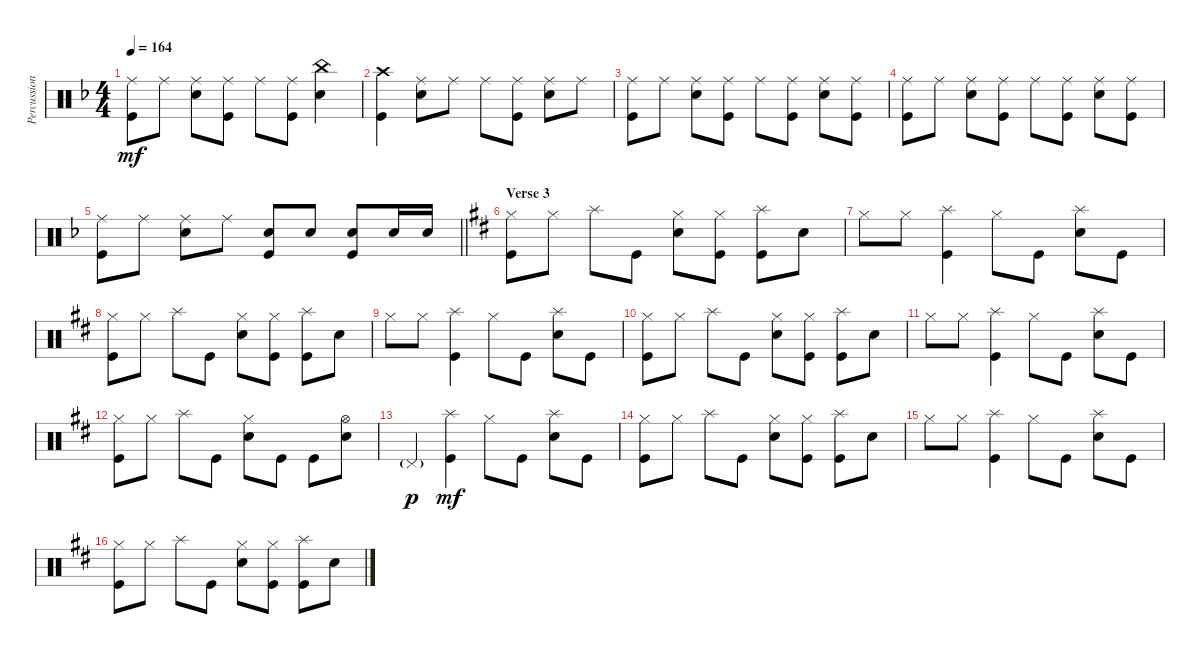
\track ("Percussions" "Percussion") {instrument percussion}
\staff {score}
\articulation defaults
\ts (4 4)
\tempo 164
\clef neutral
\ks dminor
("Ride (middle)" "Kick (hit)").8{dy mf} "Ride (middle)".8 ("Ride (middle)" "Electric Snare (hit)").8 ("Ride (middle)" "Kick (hit)").8 "Ride (middle)".8 ("Ride (middle)" "Kick (hit)").8 ("China (hit)" "Electric Snare (hit)").4 |
("Crash high (hit)" "Kick (hit)").4 ("Ride (middle)" "Electric Snare (hit)").8 "Ride (middle)".8 "Ride (middle)".8 ("Ride (middle)" "Kick (hit)").8 ("Ride (middle)" "Electric Snare (hit)").8 "Ride (middle)".8 |
("Ride (middle)" "Kick (hit)").8 "Ride (middle)".8 ("Ride (middle)" "Electric Snare (hit)").8 ("Ride (middle)" "Kick (hit)").8 "Ride (middle)".8 ("Ride (middle)" "Kick (hit)").8 ("Ride (middle)" "Electric Snare (hit)").8 ("Ride (middle)" "Kick (hit)").8 |
("Ride (middle)" "Kick (hit)").8 "Ride (middle)".8 ("Ride (middle)" "Electric Snare (hit)").8 ("Ride (middle)" "Kick (hit)").8 "Ride (middle)".8 ("Ride (middle)" "Kick (hit)").8 ("Ride (middle)" "Electric Snare (hit)").8 ("Ride (middle)" "Kick (hit)").8 |
\barLineRight lightlight
("Ride (middle)" "Kick (hit)").8 "Ride (middle)".8 ("Ride (middle)" "Electric Snare (hit)").8 "Ride (middle)".8 ("Electric Snare (hit)" "Kick (hit)").8 "Electric Snare (hit)".8 ("Electric Snare (hit)" "Kick (hit)").8 "Electric Snare (hit)".16 "Electric Snare (hit)".16 |
\section ("" "Verse 3")
\ks bminor
("Hi-Hat (closed)" "Kick (hit)").8 "Hi-Hat (closed)".8 "Splash (hit)".8 "Kick (hit)".8 ("Hi-Hat (closed)" "Electric Snare (hit)").8 ("Hi-Hat (closed)" "Kick (hit)").8 ("Splash (hit)" "Kick (hit)").8 "Electric Snare (hit)".8 |
"Hi-Hat (closed)".8 "Hi-Hat (closed)".8 ("Splash (hit)" "Kick (hit)").4 "Hi-Hat (closed)".8 "Kick (hit)".8 ("Splash (hit)" "Electric Snare (hit)").8 "Kick (hit)".8 |
("Hi-Hat (closed)" "Kick (hit)").8 "Hi-Hat (closed)".8 "Splash (hit)".8 "Kick (hit)".8 ("Hi-Hat (closed)" "Electric Snare (hit)").8 ("Hi-Hat (closed)" "Kick (hit)").8 ("Splash (hit)" "Kick (hit)").8 "Electric Snare (hit)".8 |
"Hi-Hat (closed)".8 "Hi-Hat (closed)".8 ("Splash (hit)" "Kick (hit)").4 "Hi-Hat (closed)".8 "Kick (hit)".8 ("Splash (hit)" "Electric Snare (hit)").8 "Kick (hit)".8 |
("Hi-Hat (closed)" "Kick (hit)").8 "Hi-Hat (closed)".8 "Splash (hit)".8 "Kick (hit)".8 ("Hi-Hat (closed)" "Electric Snare (hit)").8 ("Hi-Hat (closed)" "Kick (hit)").8 ("Splash (hit)" "Kick (hit)").8 "Electric Snare (hit)".8 |
"Hi-Hat (closed)".8 "Hi-Hat (closed)".8 ("Splash (hit)" "Kick (hit)").4 "Hi-Hat (closed)".8 "Kick (hit)".8 ("Splash (hit)" "Electric Snare (hit)").8 "Kick (hit)".8 |
("Hi-Hat (closed)" "Kick (hit)").8 "Hi-Hat (closed)".8 "Splash (hit)".8 "Kick (hit)".8 ("Hi-Hat (closed)" "Electric Snare (hit)").8 "Kick (hit)".8 "Kick (hit)".8 ("Hi-Hat (open)" "Electric Snare (hit)").8 |
"Pedal Hi-Hat (hit)"{g}.4{dy p} ("Splash (hit)" "Kick (hit)").4{dy mf} "Hi-Hat (closed)".8 "Kick (hit)".8 ("Splash (hit)" "Electric Snare (hit)").8 "Kick (hit)".8 |
("Hi-Hat (closed)" "Kick (hit)").8 "Hi-Hat (closed)".8 "Splash (hit)".8 "Kick (hit)".8 ("Hi-Hat (closed)" "Electric Snare (hit)").8 ("Hi-Hat (closed)" "Kick (hit)").8 ("Splash (hit)" "Kick (hit)").8 "Electric Snare (hit)".8 |
"Hi-Hat (closed)".8 "Hi-Hat (closed)".8 ("Splash (hit)" "Kick (hit)").4 "Hi-Hat (closed)".8 "Kick (hit)".8 ("Splash (hit)" "Electric Snare (hit)").8 "Kick (hit)".8 |
("Hi-Hat (closed)" "Kick (hit)").8 "Hi-Hat (closed)".8 "Splash (hit)".8 "Kick (hit)".8 ("Hi-Hat (closed)" "Electric Snare (hit)").8 ("Hi-Hat (closed)" "Kick (hit)").8 ("Splash (hit)" "Kick (hit)").8 "Electric Snare (hit)".8
